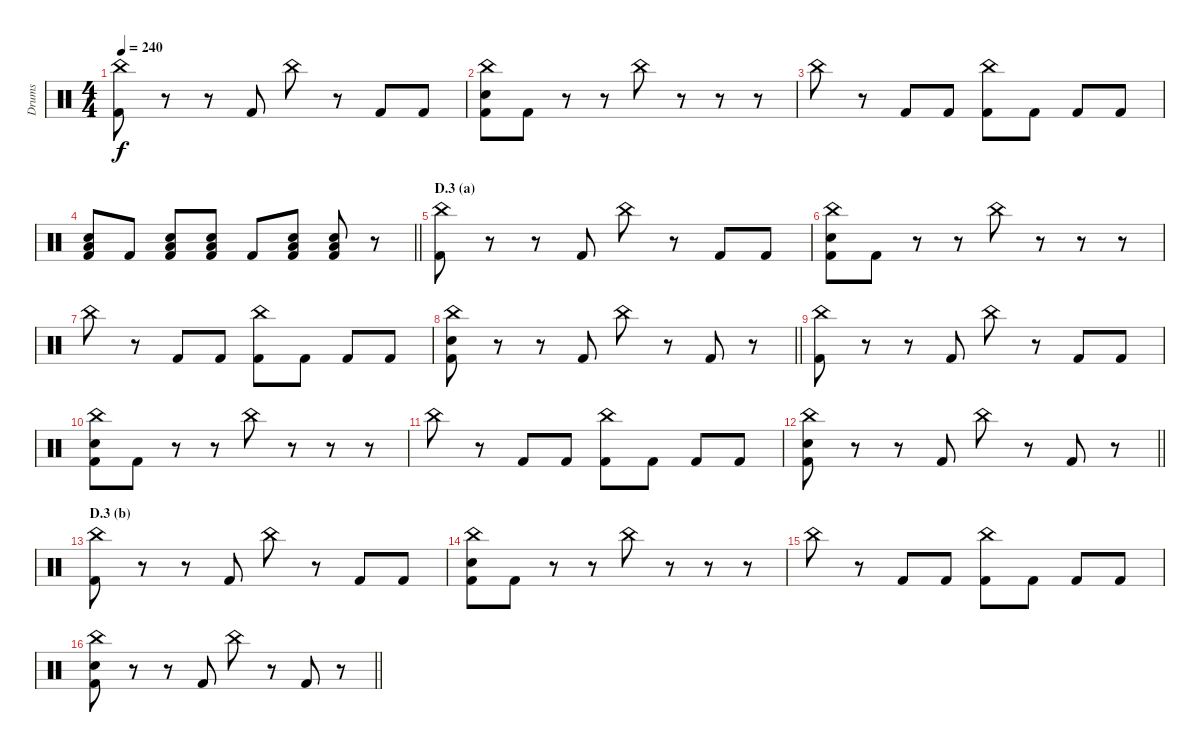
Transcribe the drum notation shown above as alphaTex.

\track ("Drums" "Drums") {instrument percussion}
\staff {score}
\articulation defaults
\ts (4 4)
\tempo 240
\clef neutral
\ks c
("China (hit)" "Kick (hit) 2").8{dy f} r.8 r.8 "Kick (hit) 2".8 "China (hit)".8 r.8 "Kick (hit) 2".8 "Kick (hit) 2".8 |
("China (hit)" "Electric Snare (hit)" "Kick (hit) 2").8 "Kick (hit) 2".8 r.8 r.8 "China (hit)".8 r.8 r.8 r.8 |
"China (hit)".8 r.8 "Kick (hit) 2".8 "Kick (hit) 2".8 ("China (hit)" "Kick (hit) 2").8 "Kick (hit) 2".8 "Kick (hit) 2".8 "Kick (hit) 2".8 |
\barLineRight lightlight
("Electric Snare (hit)" "Low Floor Tom (hit)" "Kick (hit) 2").8 "Kick (hit) 2".8 ("Electric Snare (hit)" "Low Floor Tom (hit)" "Kick (hit) 2").8 ("Electric Snare (hit)" "Low Floor Tom (hit)" "Kick (hit) 2").8 "Kick (hit) 2".8 ("Electric Snare (hit)" "Low Floor Tom (hit)" "Kick (hit) 2").8 ("Electric Snare (hit)" "Low Floor Tom (hit)" "Kick (hit) 2").8 r.8 |
\section ("" "D.3 (a)")
("China (hit)" "Kick (hit) 2").8 r.8 r.8 "Kick (hit) 2".8 "China (hit)".8 r.8 "Kick (hit) 2".8 "Kick (hit) 2".8 |
("China (hit)" "Electric Snare (hit)" "Kick (hit) 2").8 "Kick (hit) 2".8 r.8 r.8 "China (hit)".8 r.8 r.8 r.8 |
"China (hit)".8 r.8 "Kick (hit) 2".8 "Kick (hit) 2".8 ("China (hit)" "Kick (hit) 2").8 "Kick (hit) 2".8 "Kick (hit) 2".8 "Kick (hit) 2".8 |
\barLineRight lightlight
("China (hit)" "Electric Snare (hit)" "Kick (hit) 2").8 r.8 r.8 "Kick (hit) 2".8 "China (hit)".8 r.8 "Kick (hit) 2".8 r.8 |
("China (hit)" "Kick (hit) 2").8 r.8 r.8 "Kick (hit) 2".8 "China (hit)".8 r.8 "Kick (hit) 2".8 "Kick (hit) 2".8 |
("China (hit)" "Electric Snare (hit)" "Kick (hit) 2").8 "Kick (hit) 2".8 r.8 r.8 "China (hit)".8 r.8 r.8 r.8 |
"China (hit)".8 r.8 "Kick (hit) 2".8 "Kick (hit) 2".8 ("China (hit)" "Kick (hit) 2").8 "Kick (hit) 2".8 "Kick (hit) 2".8 "Kick (hit) 2".8 |
\barLineRight lightlight
("China (hit)" "Electric Snare (hit)" "Kick (hit) 2").8 r.8 r.8 "Kick (hit) 2".8 "China (hit)".8 r.8 "Kick (hit) 2".8 r.8 |
\section ("" "D.3 (b)")
("China (hit)" "Kick (hit) 2").8 r.8 r.8 "Kick (hit) 2".8 "China (hit)".8 r.8 "Kick (hit) 2".8 "Kick (hit) 2".8 |
("China (hit)" "Electric Snare (hit)" "Kick (hit) 2").8 "Kick (hit) 2".8 r.8 r.8 "China (hit)".8 r.8 r.8 r.8 |
"China (hit)".8 r.8 "Kick (hit) 2".8 "Kick (hit) 2".8 ("China (hit)" "Kick (hit) 2").8 "Kick (hit) 2".8 "Kick (hit) 2".8 "Kick (hit) 2".8 |
\barLineRight lightlight
("China (hit)" "Electric Snare (hit)" "Kick (hit) 2").8 r.8 r.8 "Kick (hit) 2".8 "China (hit)".8 r.8 "Kick (hit) 2".8 r.8
